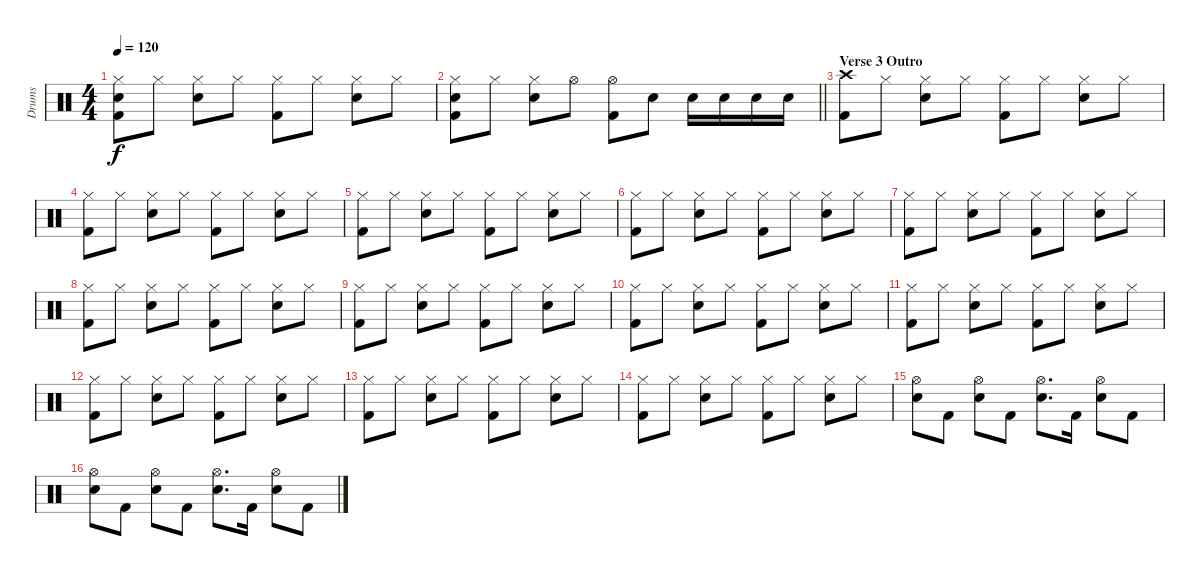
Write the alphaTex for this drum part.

\track ("Drums" "Drums") {instrument percussion}
\staff {score}
\articulation defaults
\ts (4 4)
\tempo 120
\clef neutral
\ks c
("Hi-Hat (closed)" "Snare (hit) 2" "Kick (hit) 2").8{dy f} "Hi-Hat (closed)".8 ("Hi-Hat (closed)" "Snare (hit) 2").8 "Hi-Hat (closed)".8 ("Hi-Hat (closed)" "Kick (hit) 2").8 "Hi-Hat (closed)".8 ("Hi-Hat (closed)" "Snare (hit) 2").8 "Hi-Hat (closed)".8 |
\barLineRight lightlight
("Hi-Hat (closed)" "Snare (hit) 2" "Kick (hit) 2").8 "Hi-Hat (closed)".8 ("Hi-Hat (closed)" "Snare (hit) 2").8 "Hi-Hat (open)".8 ("Hi-Hat (open)" "Kick (hit) 2").8 "Snare (hit) 2".8 "Snare (hit) 2".16 "Snare (hit) 2".16 "Snare (hit) 2".16 "Snare (hit) 2".16 |
\section ("" "Verse 3 Outro")
("Crash high (hit)" "Kick (hit) 2").8 "Hi-Hat (closed)".8 ("Hi-Hat (closed)" "Snare (hit) 2").8 "Hi-Hat (closed)".8 ("Hi-Hat (closed)" "Kick (hit) 2").8 "Hi-Hat (closed)".8 ("Hi-Hat (closed)" "Snare (hit) 2").8 "Hi-Hat (closed)".8 |
("Hi-Hat (closed)" "Kick (hit) 2").8 "Hi-Hat (closed)".8 ("Hi-Hat (closed)" "Snare (hit) 2").8 "Hi-Hat (closed)".8 ("Hi-Hat (closed)" "Kick (hit) 2").8 "Hi-Hat (closed)".8 ("Hi-Hat (closed)" "Snare (hit) 2").8 "Hi-Hat (closed)".8 |
("Hi-Hat (closed)" "Kick (hit) 2").8 "Hi-Hat (closed)".8 ("Hi-Hat (closed)" "Snare (hit) 2").8 "Hi-Hat (closed)".8 ("Hi-Hat (closed)" "Kick (hit) 2").8 "Hi-Hat (closed)".8 ("Hi-Hat (closed)" "Snare (hit) 2").8 "Hi-Hat (closed)".8 |
("Hi-Hat (closed)" "Kick (hit) 2").8 "Hi-Hat (closed)".8 ("Hi-Hat (closed)" "Snare (hit) 2").8 "Hi-Hat (closed)".8 ("Hi-Hat (closed)" "Kick (hit) 2").8 "Hi-Hat (closed)".8 ("Hi-Hat (closed)" "Snare (hit) 2").8 "Hi-Hat (closed)".8 |
("Hi-Hat (closed)" "Kick (hit) 2").8 "Hi-Hat (closed)".8 ("Hi-Hat (closed)" "Snare (hit) 2").8 "Hi-Hat (closed)".8 ("Hi-Hat (closed)" "Kick (hit) 2").8 "Hi-Hat (closed)".8 ("Hi-Hat (closed)" "Snare (hit) 2").8 "Hi-Hat (closed)".8 |
("Hi-Hat (closed)" "Kick (hit) 2").8 "Hi-Hat (closed)".8 ("Hi-Hat (closed)" "Snare (hit) 2").8 "Hi-Hat (closed)".8 ("Hi-Hat (closed)" "Kick (hit) 2").8 "Hi-Hat (closed)".8 ("Hi-Hat (closed)" "Snare (hit) 2").8 "Hi-Hat (closed)".8 |
("Hi-Hat (closed)" "Kick (hit) 2").8 "Hi-Hat (closed)".8 ("Hi-Hat (closed)" "Snare (hit) 2").8 "Hi-Hat (closed)".8 ("Hi-Hat (closed)" "Kick (hit) 2").8 "Hi-Hat (closed)".8 ("Hi-Hat (closed)" "Snare (hit) 2").8 "Hi-Hat (closed)".8 |
("Hi-Hat (closed)" "Kick (hit) 2").8 "Hi-Hat (closed)".8 ("Hi-Hat (closed)" "Snare (hit) 2").8 "Hi-Hat (closed)".8 ("Hi-Hat (closed)" "Kick (hit) 2").8 "Hi-Hat (closed)".8 ("Hi-Hat (closed)" "Snare (hit) 2").8 "Hi-Hat (closed)".8 |
("Hi-Hat (closed)" "Kick (hit) 2").8 "Hi-Hat (closed)".8 ("Hi-Hat (closed)" "Snare (hit) 2").8 "Hi-Hat (closed)".8 ("Hi-Hat (closed)" "Kick (hit) 2").8 "Hi-Hat (closed)".8 ("Hi-Hat (closed)" "Snare (hit) 2").8 "Hi-Hat (closed)".8 |
("Hi-Hat (closed)" "Kick (hit) 2").8 "Hi-Hat (closed)".8 ("Hi-Hat (closed)" "Snare (hit) 2").8 "Hi-Hat (closed)".8 ("Hi-Hat (closed)" "Kick (hit) 2").8 "Hi-Hat (closed)".8 ("Hi-Hat (closed)" "Snare (hit) 2").8 "Hi-Hat (closed)".8 |
("Hi-Hat (closed)" "Kick (hit) 2").8 "Hi-Hat (closed)".8 ("Hi-Hat (closed)" "Snare (hit) 2").8 "Hi-Hat (closed)".8 ("Hi-Hat (closed)" "Kick (hit) 2").8 "Hi-Hat (closed)".8 ("Hi-Hat (closed)" "Snare (hit) 2").8 "Hi-Hat (closed)".8 |
("Hi-Hat (closed)" "Kick (hit) 2").8 "Hi-Hat (closed)".8 ("Hi-Hat (closed)" "Snare (hit) 2").8 "Hi-Hat (closed)".8 ("Hi-Hat (closed)" "Kick (hit) 2").8 "Hi-Hat (closed)".8 ("Hi-Hat (closed)" "Snare (hit) 2").8 "Hi-Hat (closed)".8 |
("Hi-Hat (open)" "Snare (hit) 2").8 "Kick (hit) 2".8 ("Hi-Hat (open)" "Snare (hit) 2").8 "Kick (hit) 2".8 ("Hi-Hat (open)" "Snare (hit) 2").8{d} "Kick (hit) 2".16 ("Hi-Hat (open)" "Snare (hit) 2").8 "Kick (hit) 2".8 |
("Hi-Hat (open)" "Snare (hit) 2").8 "Kick (hit) 2".8 ("Hi-Hat (open)" "Snare (hit) 2").8 "Kick (hit) 2".8 ("Hi-Hat (open)" "Snare (hit) 2").8{d} "Kick (hit) 2".16 ("Hi-Hat (open)" "Snare (hit) 2").8 "Kick (hit) 2".8
